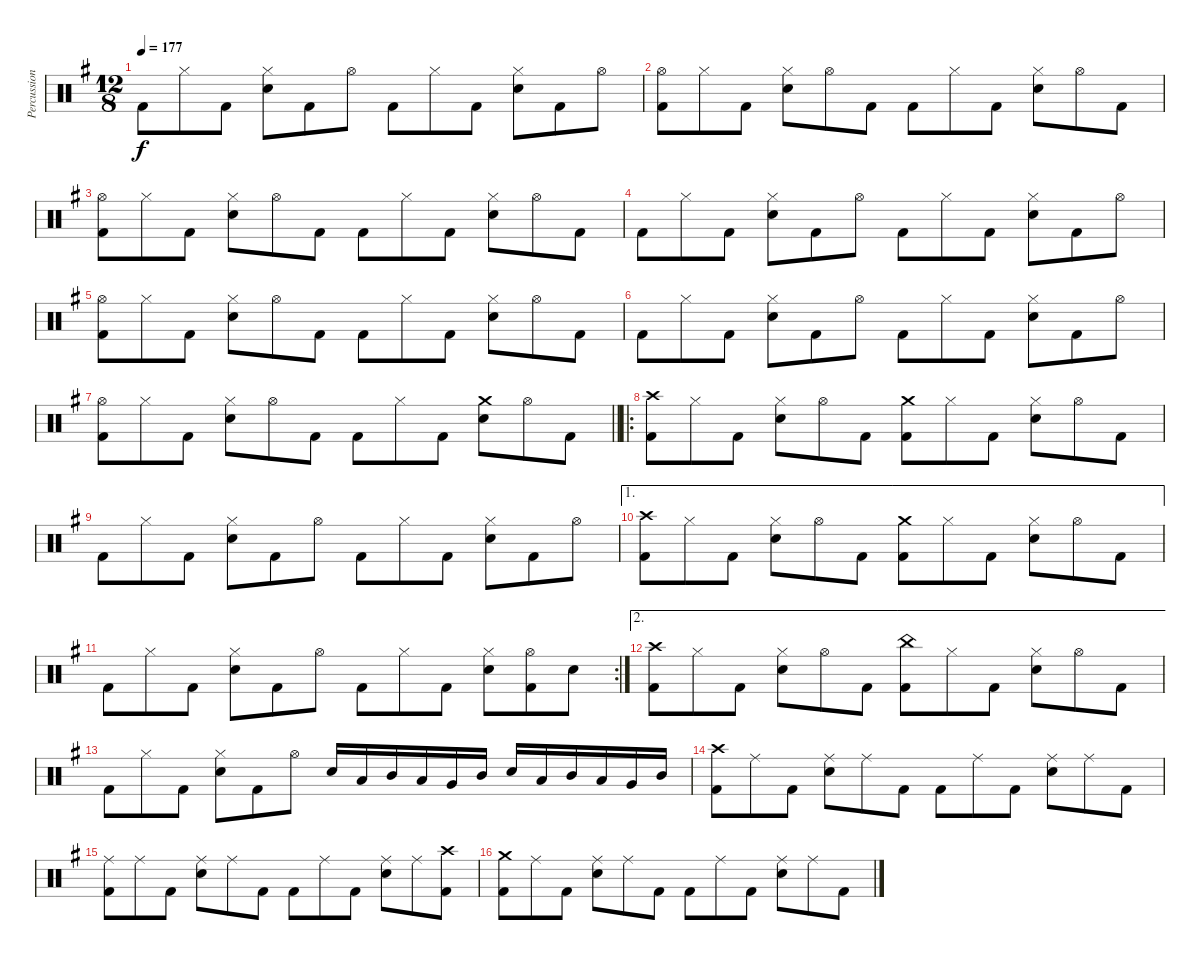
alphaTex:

\track ("Percussion" "Percussion") {instrument percussion}
\staff {score}
\articulation defaults
\ts (12 8)
\tempo 177
\clef neutral
\ks g "Kick (hit) 2".8{dy f} "Hi-Hat (closed)".8 "Kick (hit) 2".8
("Hi-Hat (closed)" "Snare (hit) 2").8 "Kick (hit) 2".8 "Hi-Hat (open)".8 "Kick (hit) 2".8 "Hi-Hat (closed)".8 "Kick (hit) 2".8 ("Hi-Hat (closed)" "Snare (hit) 2").8 "Kick (hit) 2".8 "Hi-Hat (open)".8 |
("Hi-Hat (open)" "Kick (hit) 2").8 "Hi-Hat (closed)".8 "Kick (hit) 2".8 ("Hi-Hat (closed)" "Snare (hit) 2").8 "Hi-Hat (open)".8 "Kick (hit) 2".8 "Kick (hit) 2".8 "Hi-Hat (closed)".8 "Kick (hit) 2".8 ("Hi-Hat (closed)" "Snare (hit) 2").8 "Hi-Hat (open)".8 "Kick (hit) 2".8 |
("Hi-Hat (open)" "Kick (hit) 2").8 "Hi-Hat (closed)".8 "Kick (hit) 2".8 ("Hi-Hat (closed)" "Snare (hit) 2").8 "Hi-Hat (open)".8 "Kick (hit) 2".8 "Kick (hit) 2".8 "Hi-Hat (closed)".8 "Kick (hit) 2".8 ("Hi-Hat (closed)" "Snare (hit) 2").8 "Hi-Hat (open)".8 "Kick (hit) 2".8 |
"Kick (hit) 2".8 "Hi-Hat (closed)".8 "Kick (hit) 2".8 ("Hi-Hat (closed)" "Snare (hit) 2").8 "Kick (hit) 2".8 "Hi-Hat (open)".8 "Kick (hit) 2".8 "Hi-Hat (closed)".8 "Kick (hit) 2".8 ("Hi-Hat (closed)" "Snare (hit) 2").8 "Kick (hit) 2".8 "Hi-Hat (open)".8 |
("Hi-Hat (open)" "Kick (hit) 2").8 "Hi-Hat (closed)".8 "Kick (hit) 2".8 ("Hi-Hat (closed)" "Snare (hit) 2").8 "Hi-Hat (open)".8 "Kick (hit) 2".8 "Kick (hit) 2".8 "Hi-Hat (closed)".8 "Kick (hit) 2".8 ("Hi-Hat (closed)" "Snare (hit) 2").8 "Hi-Hat (open)".8 "Kick (hit) 2".8 |
"Kick (hit) 2".8 "Hi-Hat (closed)".8 "Kick (hit) 2".8 ("Hi-Hat (closed)" "Snare (hit) 2").8 "Kick (hit) 2".8 "Hi-Hat (open)".8 "Kick (hit) 2".8 "Hi-Hat (closed)".8 "Kick (hit) 2".8 ("Hi-Hat (closed)" "Snare (hit) 2").8 "Kick (hit) 2".8 "Hi-Hat (open)".8 |
\barLineRight lightlight
("Hi-Hat (open)" "Kick (hit) 2").8 "Hi-Hat (closed)".8 "Kick (hit) 2".8 ("Hi-Hat (closed)" "Snare (hit) 2").8 "Hi-Hat (open)".8 "Kick (hit) 2".8 "Kick (hit) 2".8 "Hi-Hat (closed)".8 "Kick (hit) 2".8 ("Crash medium (hit)" "Snare (hit) 2").8 "Hi-Hat (open)".8 "Kick (hit) 2".8 |
\ro
("Crash high (hit)" "Kick (hit) 2").8 "Hi-Hat (closed)".8 "Kick (hit) 2".8 ("Hi-Hat (closed)" "Snare (hit) 2").8 "Hi-Hat (open)".8 "Kick (hit) 2".8 ("Crash medium (hit)" "Kick (hit) 2").8 "Hi-Hat (closed)".8 "Kick (hit) 2".8 ("Hi-Hat (closed)" "Snare (hit) 2").8 "Hi-Hat (open)".8 "Kick (hit) 2".8 |
"Kick (hit) 2".8 "Hi-Hat (closed)".8 "Kick (hit) 2".8 ("Hi-Hat (closed)" "Snare (hit) 2").8 "Kick (hit) 2".8 "Hi-Hat (open)".8 "Kick (hit) 2".8 "Hi-Hat (closed)".8 "Kick (hit) 2".8 ("Hi-Hat (closed)" "Snare (hit) 2").8 "Kick (hit) 2".8 "Hi-Hat (open)".8 |
\ae 1
("Crash high (hit)" "Kick (hit) 2").8 "Hi-Hat (closed)".8 "Kick (hit) 2".8 ("Hi-Hat (closed)" "Snare (hit) 2").8 "Hi-Hat (open)".8 "Kick (hit) 2".8 ("Crash medium (hit)" "Kick (hit) 2").8 "Hi-Hat (closed)".8 "Kick (hit) 2".8 ("Hi-Hat (closed)" "Snare (hit) 2").8 "Hi-Hat (open)".8 "Kick (hit) 2".8 |
\rc 2 "Kick (hit) 2".8 "Hi-Hat (closed)".8 "Kick (hit) 2".8
("Hi-Hat (closed)" "Snare (hit) 2").8 "Kick (hit) 2".8 "Hi-Hat (open)".8 "Kick (hit) 2".8 "Hi-Hat (closed)".8 "Kick (hit) 2".8 ("Hi-Hat (closed)" "Snare (hit) 2").8 ("Hi-Hat (open)" "Kick (hit) 2").8 "Snare (hit) 2".8 |
\ae 2
("Crash high (hit)" "Kick (hit) 2").8 "Hi-Hat (closed)".8 "Kick (hit) 2".8 ("Hi-Hat (closed)" "Snare (hit) 2").8 "Hi-Hat (open)".8 "Kick (hit) 2".8 ("China (hit)" "Kick (hit) 2").8 "Hi-Hat (closed)".8 "Kick (hit) 2".8 ("Hi-Hat (closed)" "Snare (hit) 2").8 "Hi-Hat (open)".8 "Kick (hit) 2".8 |
"Kick (hit) 2".8 "Hi-Hat (closed)".8 "Kick (hit) 2".8 ("Hi-Hat (closed)" "Snare (hit) 2").8 "Kick (hit) 2".8 "Hi-Hat (open)".8 "Snare (hit) 2".16 "Low Tom (hit)".16 "Mid Tom (hit)".16 "Low Tom (hit)".16 "Very Low Tom (hit)".16 "Mid Tom (hit)".16 "Snare (hit) 2".16 "Low Tom (hit)".16 "Mid Tom (hit)".16 "Low Tom (hit)".16 "Very Low Tom (hit)".16 "Mid Tom (hit)".16 |
("Crash high (hit)" "Kick (hit) 2").8 "Ride (middle)".8 "Kick (hit) 2".8 ("Ride (middle)" "Snare (hit) 2").8 "Ride (middle)".8 "Kick (hit) 2".8 "Kick (hit) 2".8 "Ride (middle)".8 "Kick (hit) 2".8 ("Ride (middle)" "Snare (hit) 2").8 "Ride (middle)".8 "Kick (hit) 2".8 |
("Ride (middle)" "Kick (hit) 2").8 "Ride (middle)".8 "Kick (hit) 2".8 ("Ride (middle)" "Snare (hit) 2").8 "Ride (middle)".8 "Kick (hit) 2".8 "Kick (hit) 2".8 "Ride (middle)".8 "Kick (hit) 2".8 ("Ride (middle)" "Snare (hit) 2").8 "Ride (middle)".8 ("Crash high (hit)" "Kick (hit) 2").8 |
("Crash medium (hit)" "Kick (hit) 2").8 "Ride (middle)".8 "Kick (hit) 2".8 ("Ride (middle)" "Snare (hit) 2").8 "Ride (middle)".8 "Kick (hit) 2".8 "Kick (hit) 2".8 "Ride (middle)".8 "Kick (hit) 2".8 ("Ride (middle)" "Snare (hit) 2").8 "Ride (middle)".8 "Kick (hit) 2".8
